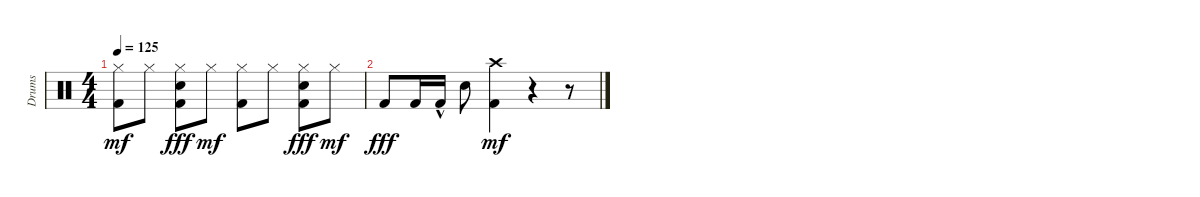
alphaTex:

\track ("Drums" "Drums") {instrument percussion}
\staff {score}
\articulation defaults
\ts (4 4)
\tempo 125
\clef neutral
\ks c
("Kick (hit) 2" "Hi-Hat (closed)").8{dy mf} "Hi-Hat (closed)".8 ("Snare (hit) 2" "Kick (hit) 2" "Hi-Hat (closed)").8{dy fff} "Hi-Hat (closed)".8{dy mf} ("Kick (hit) 2" "Hi-Hat (closed)").8 "Hi-Hat (closed)".8 ("Snare (hit) 2" "Kick (hit) 2" "Hi-Hat (closed)").8{dy fff} "Hi-Hat (closed)".8{dy mf} |
"Kick (hit) 2".8{dy fff} "Kick (hit) 2".16 "Kick (hit) 2"{hac}.16 "Snare (hit) 2".8 ("Kick (hit) 2" "Crash high (hit)").4{dy mf} r.4 r.8
